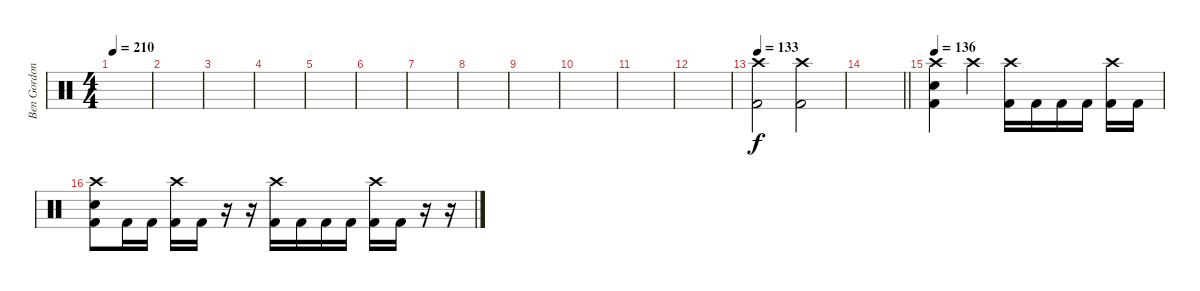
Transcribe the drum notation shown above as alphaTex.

\track ("Ben Gordon" "Ben Gordon") {instrument percussion}
\staff {score}
\articulation defaults
\ts (4 4)
\tempo 210
\clef neutral
\ks c
|
|
|
|
|
|
|
|
|
|
|
|
\tempo 133
("Crash high (hit)" "Kick (hit) 2").2{dy f} ("Crash high (hit)" "Kick (hit) 2").2 |
\barLineRight lightlight
|
\tempo 136
("Crash high (hit)" "Electric Snare (hit)" "Kick (hit) 2").4 "Crash high (hit)".4 ("Crash high (hit)" "Kick (hit) 2").16 "Kick (hit) 2".16 "Kick (hit) 2".16 "Kick (hit) 2".16 ("Crash high (hit)" "Kick (hit) 2").16 "Kick (hit) 2".16 |
("Crash high (hit)" "Electric Snare (hit)" "Kick (hit) 2").8 "Kick (hit) 2".16 "Kick (hit) 2".16 ("Crash high (hit)" "Kick (hit) 2").16 "Kick (hit) 2".16 r.16 r.16 ("Crash high (hit)" "Kick (hit) 2").16 "Kick (hit) 2".16 "Kick (hit) 2".16 "Kick (hit) 2".16 ("Crash high (hit)" "Kick (hit) 2").16 "Kick (hit) 2".16 r.16 r.16
